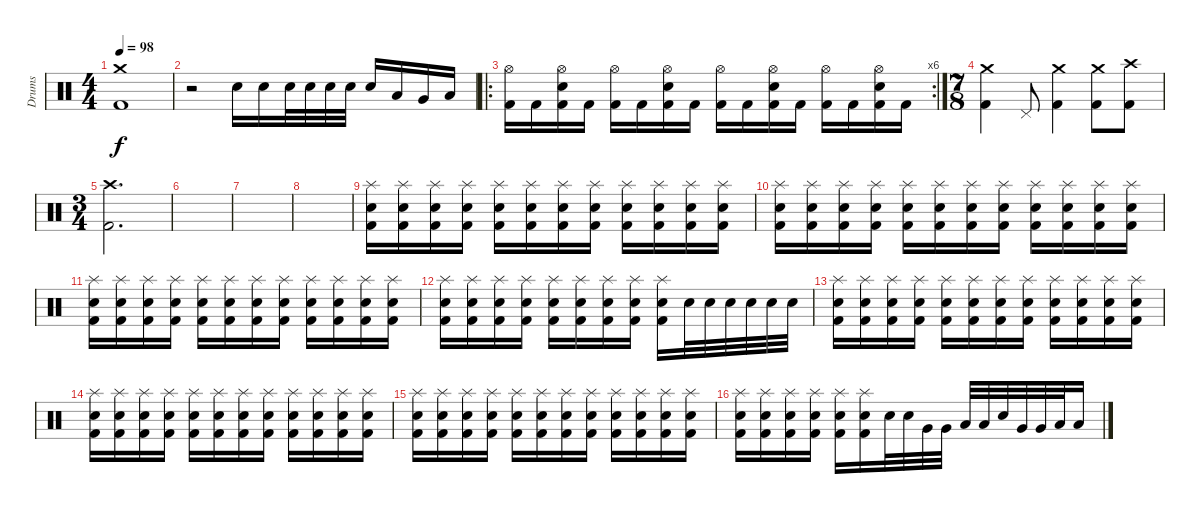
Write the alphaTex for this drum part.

\track ("Drums" "Drums") {instrument percussion}
\staff {score}
\articulation defaults
\ts (4 4)
\tempo 98
\clef neutral
\ks c
("Crash medium (hit)" "Kick (hit) 2").1{dy f} |
r.2 "Electric Snare (hit)".16 "Electric Snare (hit)".16 "Electric Snare (hit)".32 "Electric Snare (hit)".32 "Electric Snare (hit)".32 "Electric Snare (hit)".32 "Electric Snare (hit)".16 "Low Tom (hit)".16 "Very Low Tom (hit)".16 "Low Floor Tom (hit)".16 |
\ro
\rc 6
("Hi-Hat (open)" "Kick (hit) 2").16 "Kick (hit) 2".16 ("Hi-Hat (open)" "Electric Snare (hit)" "Kick (hit) 2").16 "Kick (hit) 2".16 ("Hi-Hat (open)" "Kick (hit) 2").16 "Kick (hit) 2".16 ("Hi-Hat (open)" "Electric Snare (hit)" "Kick (hit) 2").16 "Kick (hit) 2".16 ("Hi-Hat (open)" "Kick (hit) 2").16 "Kick (hit) 2".16 ("Hi-Hat (open)" "Electric Snare (hit)" "Kick (hit) 2").16 "Kick (hit) 2".16 ("Hi-Hat (open)" "Kick (hit) 2").16 "Kick (hit) 2".16 ("Hi-Hat (open)" "Electric Snare (hit)" "Kick (hit) 2").16 "Kick (hit) 2".16 |
\ts (7 8)
("Crash medium (hit)" "Kick (hit) 2").4 "Pedal Hi-Hat (hit)".8 ("Crash medium (hit)" "Kick (hit) 2").4 ("Crash medium (hit)" "Kick (hit) 2").8 ("Crash high (hit)" "Kick (hit) 2").8 |
\ts (3 4)
("Crash high (hit)" "Kick (hit) 2").2{d} |
|
|
|
("Splash (hit)" "Electric Snare (hit)" "Kick (hit) 2").16 ("Splash (hit)" "Electric Snare (hit)" "Kick (hit) 2").16 ("Splash (hit)" "Electric Snare (hit)" "Kick (hit) 2").16 ("Splash (hit)" "Electric Snare (hit)" "Kick (hit) 2").16 ("Splash (hit)" "Electric Snare (hit)" "Kick (hit) 2").16 ("Splash (hit)" "Electric Snare (hit)" "Kick (hit) 2").16 ("Splash (hit)" "Electric Snare (hit)" "Kick (hit) 2").16 ("Splash (hit)" "Electric Snare (hit)" "Kick (hit) 2").16 ("Splash (hit)" "Electric Snare (hit)" "Kick (hit) 2").16 ("Splash (hit)" "Electric Snare (hit)" "Kick (hit) 2").16 ("Splash (hit)" "Electric Snare (hit)" "Kick (hit) 2").16 ("Splash (hit)" "Electric Snare (hit)" "Kick (hit) 2").16 |
("Splash (hit)" "Electric Snare (hit)" "Kick (hit) 2").16 ("Splash (hit)" "Electric Snare (hit)" "Kick (hit) 2").16 ("Splash (hit)" "Electric Snare (hit)" "Kick (hit) 2").16 ("Splash (hit)" "Electric Snare (hit)" "Kick (hit) 2").16 ("Splash (hit)" "Electric Snare (hit)" "Kick (hit) 2").16 ("Splash (hit)" "Electric Snare (hit)" "Kick (hit) 2").16 ("Splash (hit)" "Electric Snare (hit)" "Kick (hit) 2").16 ("Splash (hit)" "Electric Snare (hit)" "Kick (hit) 2").16 ("Splash (hit)" "Electric Snare (hit)" "Kick (hit) 2").16 ("Splash (hit)" "Electric Snare (hit)" "Kick (hit) 2").16 ("Splash (hit)" "Electric Snare (hit)" "Kick (hit) 2").16 ("Splash (hit)" "Electric Snare (hit)" "Kick (hit) 2").16 |
("Splash (hit)" "Electric Snare (hit)" "Kick (hit) 2").16 ("Splash (hit)" "Electric Snare (hit)" "Kick (hit) 2").16 ("Splash (hit)" "Electric Snare (hit)" "Kick (hit) 2").16 ("Splash (hit)" "Electric Snare (hit)" "Kick (hit) 2").16 ("Splash (hit)" "Electric Snare (hit)" "Kick (hit) 2").16 ("Splash (hit)" "Electric Snare (hit)" "Kick (hit) 2").16 ("Splash (hit)" "Electric Snare (hit)" "Kick (hit) 2").16 ("Splash (hit)" "Electric Snare (hit)" "Kick (hit) 2").16 ("Splash (hit)" "Electric Snare (hit)" "Kick (hit) 2").16 ("Splash (hit)" "Electric Snare (hit)" "Kick (hit) 2").16 ("Splash (hit)" "Electric Snare (hit)" "Kick (hit) 2").16 ("Splash (hit)" "Electric Snare (hit)" "Kick (hit) 2").16 |
("Splash (hit)" "Electric Snare (hit)" "Kick (hit) 2").16 ("Splash (hit)" "Electric Snare (hit)" "Kick (hit) 2").16 ("Splash (hit)" "Electric Snare (hit)" "Kick (hit) 2").16 ("Splash (hit)" "Electric Snare (hit)" "Kick (hit) 2").16 ("Splash (hit)" "Electric Snare (hit)" "Kick (hit) 2").16 ("Splash (hit)" "Electric Snare (hit)" "Kick (hit) 2").16 ("Splash (hit)" "Electric Snare (hit)" "Kick (hit) 2").16 ("Splash (hit)" "Electric Snare (hit)" "Kick (hit) 2").16 ("Splash (hit)" "Electric Snare (hit)" "Kick (hit) 2").16 "Electric Snare (hit)".32 "Electric Snare (hit)".32 "Electric Snare (hit)".32 "Electric Snare (hit)".32 "Electric Snare (hit)".32 "Electric Snare (hit)".32 |
("Splash (hit)" "Electric Snare (hit)" "Kick (hit) 2").16 ("Splash (hit)" "Electric Snare (hit)" "Kick (hit) 2").16 ("Splash (hit)" "Electric Snare (hit)" "Kick (hit) 2").16 ("Splash (hit)" "Electric Snare (hit)" "Kick (hit) 2").16 ("Splash (hit)" "Electric Snare (hit)" "Kick (hit) 2").16 ("Splash (hit)" "Electric Snare (hit)" "Kick (hit) 2").16 ("Splash (hit)" "Electric Snare (hit)" "Kick (hit) 2").16 ("Splash (hit)" "Electric Snare (hit)" "Kick (hit) 2").16 ("Splash (hit)" "Electric Snare (hit)" "Kick (hit) 2").16 ("Splash (hit)" "Electric Snare (hit)" "Kick (hit) 2").16 ("Splash (hit)" "Electric Snare (hit)" "Kick (hit) 2").16 ("Splash (hit)" "Electric Snare (hit)" "Kick (hit) 2").16 |
("Splash (hit)" "Electric Snare (hit)" "Kick (hit) 2").16 ("Splash (hit)" "Electric Snare (hit)" "Kick (hit) 2").16 ("Splash (hit)" "Electric Snare (hit)" "Kick (hit) 2").16 ("Splash (hit)" "Electric Snare (hit)" "Kick (hit) 2").16 ("Splash (hit)" "Electric Snare (hit)" "Kick (hit) 2").16 ("Splash (hit)" "Electric Snare (hit)" "Kick (hit) 2").16 ("Splash (hit)" "Electric Snare (hit)" "Kick (hit) 2").16 ("Splash (hit)" "Electric Snare (hit)" "Kick (hit) 2").16 ("Splash (hit)" "Electric Snare (hit)" "Kick (hit) 2").16 ("Splash (hit)" "Electric Snare (hit)" "Kick (hit) 2").16 ("Splash (hit)" "Electric Snare (hit)" "Kick (hit) 2").16 ("Splash (hit)" "Electric Snare (hit)" "Kick (hit) 2").16 |
("Splash (hit)" "Electric Snare (hit)" "Kick (hit) 2").16 ("Splash (hit)" "Electric Snare (hit)" "Kick (hit) 2").16 ("Splash (hit)" "Electric Snare (hit)" "Kick (hit) 2").16 ("Splash (hit)" "Electric Snare (hit)" "Kick (hit) 2").16 ("Splash (hit)" "Electric Snare (hit)" "Kick (hit) 2").16 ("Splash (hit)" "Electric Snare (hit)" "Kick (hit) 2").16 ("Splash (hit)" "Electric Snare (hit)" "Kick (hit) 2").16 ("Splash (hit)" "Electric Snare (hit)" "Kick (hit) 2").16 ("Splash (hit)" "Electric Snare (hit)" "Kick (hit) 2").16 ("Splash (hit)" "Electric Snare (hit)" "Kick (hit) 2").16 ("Splash (hit)" "Electric Snare (hit)" "Kick (hit) 2").16 ("Splash (hit)" "Electric Snare (hit)" "Kick (hit) 2").16 |
("Splash (hit)" "Electric Snare (hit)" "Kick (hit) 2").16 ("Splash (hit)" "Electric Snare (hit)" "Kick (hit) 2").16 ("Splash (hit)" "Electric Snare (hit)" "Kick (hit) 2").16 ("Splash (hit)" "Electric Snare (hit)" "Kick (hit) 2").16 ("Splash (hit)" "Electric Snare (hit)" "Kick (hit) 2").16 ("Splash (hit)" "Electric Snare (hit)" "Kick (hit) 2").16 "Electric Snare (hit)".32 "Electric Snare (hit)".32 "Very Low Tom (hit)".32 "Very Low Tom (hit)".32 "Low Floor Tom (hit)".32 "Low Floor Tom (hit)".32 "Electric Snare (hit)".32 "Very Low Tom (hit)".32 "Very Low Tom (hit)".32 "Low Floor Tom (hit)".32 "Low Floor Tom (hit)".16
